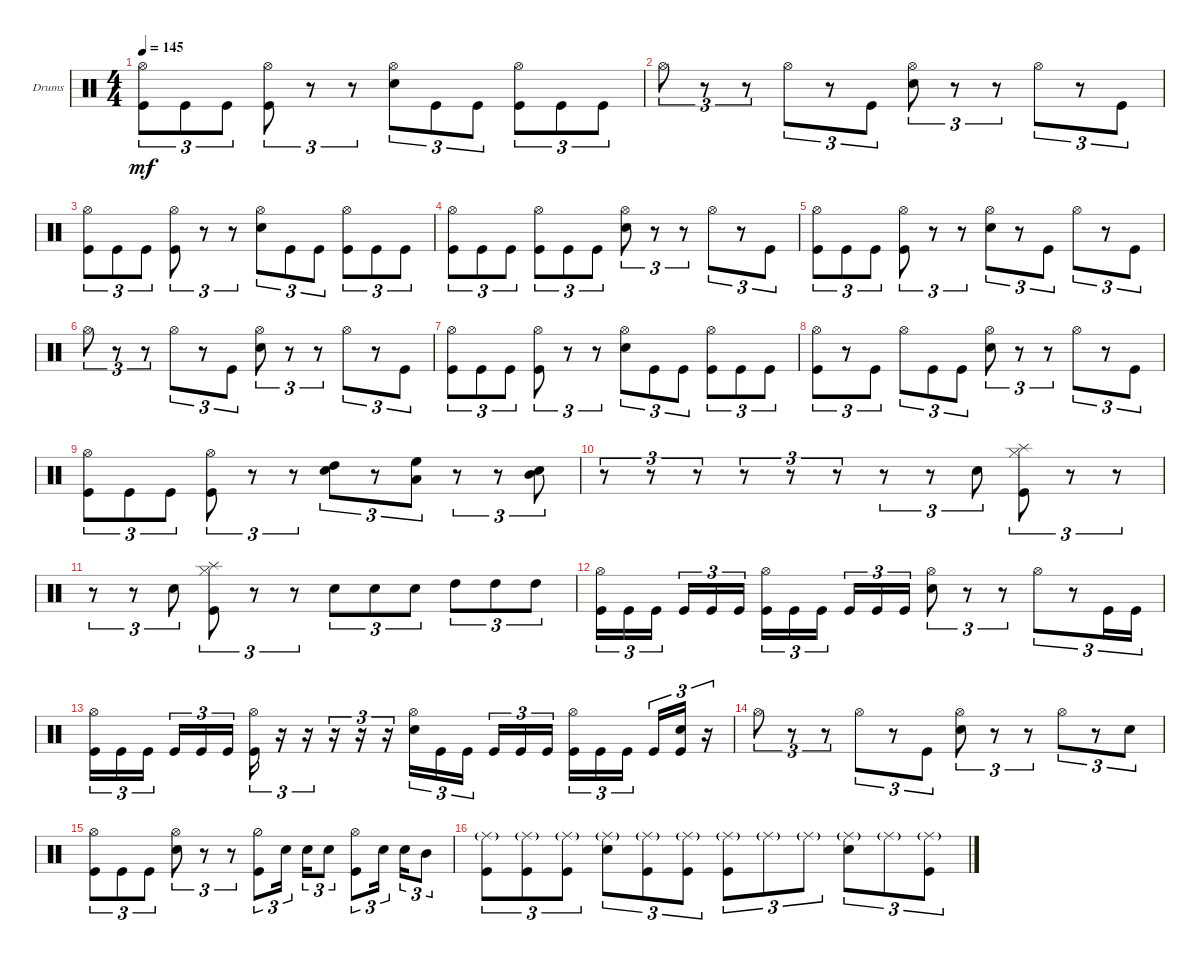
\bracketExtendMode groupsimilarinstruments
\firstSystemTrackNameOrientation horizontal
\otherSystemsTrackNameOrientation horizontal
\track ("Drumkit" "Drums") {instrument percussion}
\staff {score}
\articulation defaults
\ts (4 4)
\tempo 145
\clef neutral
\ks c
("Kick (hit)" "Hi-Hat (open)").8{tu (3 2) dy mf} "Kick (hit)".8{tu (3 2)} "Kick (hit)".8{tu (3 2)} ("Kick (hit)" "Hi-Hat (open)").8{tu (3 2)} r.8{tu (3 2)} r.8{tu (3 2)} ("Snare (hit) 2" "Hi-Hat (open)").8{tu (3 2)} "Kick (hit)".8{tu (3 2)} "Kick (hit)".8{tu (3 2)} ("Kick (hit)" "Hi-Hat (open)").8{tu (3 2)} "Kick (hit)".8{tu (3 2)} "Kick (hit)".8{tu (3 2)} |
"Hi-Hat (open)".8{tu (3 2)} r.8{tu (3 2)} r.8{tu (3 2)} "Hi-Hat (open)".8{tu (3 2)} r.8{tu (3 2)} "Kick (hit)".8{tu (3 2)} ("Snare (hit) 2" "Hi-Hat (open)").8{tu (3 2)} r.8{tu (3 2)} r.8{tu (3 2)} "Hi-Hat (open)".8{tu (3 2)} r.8{tu (3 2)} "Kick (hit)".8{tu (3 2)} |
("Kick (hit)" "Hi-Hat (open)").8{tu (3 2)} "Kick (hit)".8{tu (3 2)} "Kick (hit)".8{tu (3 2)} ("Kick (hit)" "Hi-Hat (open)").8{tu (3 2)} r.8{tu (3 2)} r.8{tu (3 2)} ("Snare (hit) 2" "Hi-Hat (open)").8{tu (3 2)} "Kick (hit)".8{tu (3 2)} "Kick (hit)".8{tu (3 2)} ("Kick (hit)" "Hi-Hat (open)").8{tu (3 2)} "Kick (hit)".8{tu (3 2)} "Kick (hit)".8{tu (3 2)} |
("Kick (hit)" "Hi-Hat (open)").8{tu (3 2)} "Kick (hit)".8{tu (3 2)} "Kick (hit)".8{tu (3 2)} ("Kick (hit)" "Hi-Hat (open)").8{tu (3 2)} "Kick (hit)".8{tu (3 2)} "Kick (hit)".8{tu (3 2)} ("Snare (hit) 2" "Hi-Hat (open)").8{tu (3 2)} r.8{tu (3 2)} r.8{tu (3 2)} "Hi-Hat (open)".8{tu (3 2)} r.8{tu (3 2)} "Kick (hit)".8{tu (3 2)} |
("Kick (hit)" "Hi-Hat (open)").8{tu (3 2)} "Kick (hit)".8{tu (3 2)} "Kick (hit)".8{tu (3 2)} ("Kick (hit)" "Hi-Hat (open)").8{tu (3 2)} r.8{tu (3 2)} r.8{tu (3 2)} ("Snare (hit) 2" "Hi-Hat (open)").8{tu (3 2)} r.8{tu (3 2)} "Kick (hit)".8{tu (3 2)} "Hi-Hat (open)".8{tu (3 2)} r.8{tu (3 2)} "Kick (hit)".8{tu (3 2)} |
"Hi-Hat (open)".8{tu (3 2)} r.8{tu (3 2)} r.8{tu (3 2)} "Hi-Hat (open)".8{tu (3 2)} r.8{tu (3 2)} "Kick (hit)".8{tu (3 2)} ("Snare (hit) 2" "Hi-Hat (open)").8{tu (3 2)} r.8{tu (3 2)} r.8{tu (3 2)} "Hi-Hat (open)".8{tu (3 2)} r.8{tu (3 2)} "Kick (hit)".8{tu (3 2)} |
("Kick (hit)" "Hi-Hat (open)").8{tu (3 2)} "Kick (hit)".8{tu (3 2)} "Kick (hit)".8{tu (3 2)} ("Kick (hit)" "Hi-Hat (open)").8{tu (3 2)} r.8{tu (3 2)} r.8{tu (3 2)} ("Snare (hit) 2" "Hi-Hat (open)").8{tu (3 2)} "Kick (hit)".8{tu (3 2)} "Kick (hit)".8{tu (3 2)} ("Kick (hit)" "Hi-Hat (open)").8{tu (3 2)} "Kick (hit)".8{tu (3 2)} "Kick (hit)".8{tu (3 2)} |
("Kick (hit)" "Hi-Hat (open)").8{tu (3 2)} r.8{tu (3 2)} "Kick (hit)".8{tu (3 2)} "Hi-Hat (open)".8{tu (3 2)} "Kick (hit)".8{tu (3 2)} "Kick (hit)".8{tu (3 2)} ("Snare (hit) 2" "Hi-Hat (open)").8{tu (3 2)} r.8{tu (3 2)} r.8{tu (3 2)} "Hi-Hat (open)".8{tu (3 2)} r.8{tu (3 2)} "Kick (hit)".8{tu (3 2)} |
("Kick (hit)" "Hi-Hat (open)").8{tu (3 2)} "Kick (hit)".8{tu (3 2)} "Kick (hit)".8{tu (3 2)} ("Kick (hit)" "Hi-Hat (open)").8{tu (3 2)} r.8{tu (3 2)} r.8{tu (3 2)} ("Snare (hit) 2" "High Tom (hit)").8{tu (3 2)} r.8{tu (3 2)} ("Low Tom (hit)" "High Floor Tom (hit)").8{tu (3 2)} r.8{tu (3 2)} r.8{tu (3 2)} ("Snare (hit) 2" "Mid Tom (hit)").8{tu (3 2)} |
r.8{tu (3 2)} r.8{tu (3 2)} r.8{tu (3 2)} r.8{tu (3 2)} r.8{tu (3 2)} r.8{tu (3 2)} r.8{tu (3 2)} r.8{tu (3 2)} "Snare (hit) 2".8{tu (3 2)} ("Kick (hit)" "Hi-Hat (closed)" "Splash (hit)").8{tu (3 2)} r.8{tu (3 2)} r.8{tu (3 2)} |
r.8{tu (3 2)} r.8{tu (3 2)} "Snare (hit) 2".8{tu (3 2)} ("Kick (hit)" "Hi-Hat (closed)" "Splash (hit)").8{tu (3 2)} r.8{tu (3 2)} r.8{tu (3 2)} "Snare (hit) 2".8{tu (3 2)} "Snare (hit) 2".8{tu (3 2)} "Snare (hit) 2".8{tu (3 2)} "High Tom (hit)".8{tu (3 2)} "High Tom (hit)".8{tu (3 2)} "High Tom (hit)".8{tu (3 2)} |
("Kick (hit)" "Hi-Hat (open)").16{tu (3 2)} "Kick (hit)".16{tu (3 2)} "Kick (hit)".16{tu (3 2)} "Kick (hit)".16{tu (3 2)} "Kick (hit)".16{tu (3 2)} "Kick (hit)".16{tu (3 2)} ("Kick (hit)" "Hi-Hat (open)").16{tu (3 2)} "Kick (hit)".16{tu (3 2)} "Kick (hit)".16{tu (3 2)} "Kick (hit)".16{tu (3 2)} "Kick (hit)".16{tu (3 2)} "Kick (hit)".16{tu (3 2)} ("Snare (hit) 2" "Hi-Hat (open)").8{tu (3 2)} r.8{tu (3 2)} r.8{tu (3 2)} "Hi-Hat (open)".8{tu (3 2)} r.8{tu (3 2)} "Kick (hit)".16{tu (3 2)} "Kick (hit)".16{tu (3 2)} |
("Kick (hit)" "Hi-Hat (open)").16{tu (3 2)} "Kick (hit)".16{tu (3 2)} "Kick (hit)".16{tu (3 2)} "Kick (hit)".16{tu (3 2)} "Kick (hit)".16{tu (3 2)} "Kick (hit)".16{tu (3 2)} ("Kick (hit)" "Hi-Hat (open)").16{tu (3 2)} r.16{tu (3 2)} r.16{tu (3 2)} r.16{tu (3 2)} r.16{tu (3 2)} r.16{tu (3 2)} ("Snare (hit) 2" "Hi-Hat (open)").16{tu (3 2)} "Kick (hit)".16{tu (3 2)} "Kick (hit)".16{tu (3 2)} "Kick (hit)".16{tu (3 2)} "Kick (hit)".16{tu (3 2)} "Kick (hit)".16{tu (3 2)} ("Kick (hit)" "Hi-Hat (open)").16{tu (3 2)} "Kick (hit)".16{tu (3 2)} "Kick (hit)".16{tu (3 2)} "Kick (hit)".16{tu (3 2)} ("Kick (hit)" "Snare (hit) 2").16{tu (3 2)} r.16{tu (3 2)} |
"Hi-Hat (open)".8{tu (3 2)} r.8{tu (3 2)} r.8{tu (3 2)} "Hi-Hat (open)".8{tu (3 2)} r.8{tu (3 2)} "Kick (hit)".8{tu (3 2)} ("Snare (hit) 2" "Hi-Hat (open)").8{tu (3 2)} r.8{tu (3 2)} r.8{tu (3 2)} "Hi-Hat (open)".8{tu (3 2)} r.8{tu (3 2)} "Snare (hit) 2".8{tu (3 2)} |
("Kick (hit)" "Hi-Hat (open)").8{tu (3 2)} "Kick (hit)".8{tu (3 2)} "Kick (hit)".8{tu (3 2)} ("Snare (hit) 2" "Hi-Hat (open)").8{tu (3 2)} r.8{tu (3 2)} r.8{tu (3 2)} ("Kick (hit)" "Hi-Hat (half)").8{tu (3 2)} "Snare (hit) 2".16{tu (3 2)} "Snare (hit) 2".16{tu (3 2)} "Snare (hit) 2".8{tu (3 2)} ("Kick (hit)" "Hi-Hat (open)").8{tu (3 2)} "Snare (hit) 2".16{tu (3 2)} "Snare (hit) 2".16{tu (3 2)} "Mid Tom (hit)".8{tu (3 2)} |
("Kick (hit)" "Ride (middle)"{g}).8{tu (3 2)} ("Kick (hit)" "Ride (middle)"{g}).8{tu (3 2)} ("Kick (hit)" "Ride (middle)"{g}).8{tu (3 2)} ("Snare (hit) 2" "Ride (middle)"{g}).8{tu (3 2)} ("Kick (hit)" "Ride (middle)"{g}).8{tu (3 2)} ("Kick (hit)" "Ride (middle)"{g}).8{tu (3 2)} ("Kick (hit)" "Ride (middle)"{g}).8{tu (3 2)} "Ride (middle)"{g}.8{tu (3 2)} "Ride (middle)"{g}.8{tu (3 2)} ("Snare (hit) 2" "Ride (middle)"{g}).8{tu (3 2)} "Ride (middle)"{g}.8{tu (3 2)} ("Kick (hit)" "Ride (middle)"{g}).8{tu (3 2)}
